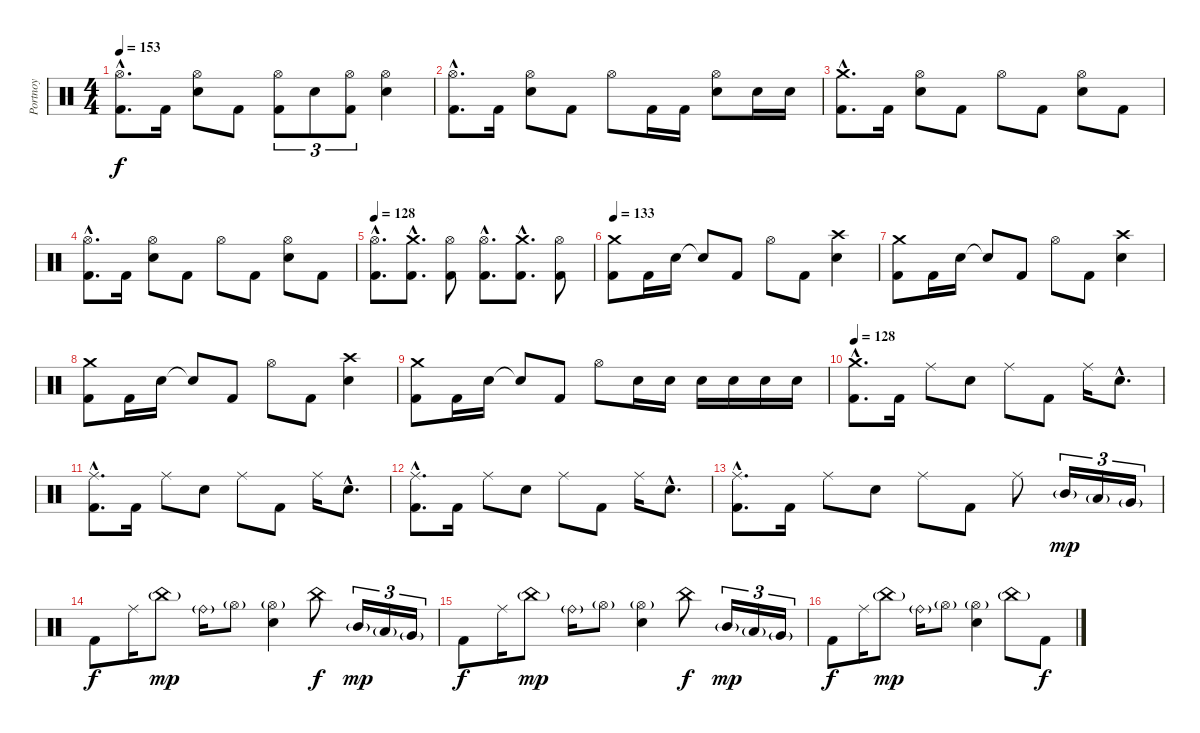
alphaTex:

\track ("Portnoy" "Portnoy") {instrument percussion}
\staff {score}
\articulation defaults
\ts (4 4)
\tempo 153
\clef neutral
\ks c
("Kick (hit) 2"{hac} "Hi-Hat (open)"{hac}).8{d dy f} "Kick (hit) 2".16 ("Electric Snare (hit)" "Hi-Hat (open)").8 "Kick (hit) 2".8 ("Kick (hit) 2" "Hi-Hat (open)").8{tu (3 2)} "Electric Snare (hit)".8{tu (3 2)} ("Kick (hit) 2" "Hi-Hat (open)").8{tu (3 2)} ("Electric Snare (hit)" "Hi-Hat (open)").4 |
("Kick (hit) 2"{hac} "Hi-Hat (open)"{hac}).8{d} "Kick (hit) 2".16 ("Electric Snare (hit)" "Hi-Hat (open)").8 "Kick (hit) 2".8 "Hi-Hat (open)".8 "Kick (hit) 2".16 "Kick (hit) 2".16 ("Electric Snare (hit)" "Hi-Hat (open)").8 "Electric Snare (hit)".16 "Electric Snare (hit)".16 |
("Kick (hit) 2"{hac} "Crash medium (hit)"{hac}).8{d} "Kick (hit) 2".16 ("Electric Snare (hit)" "Hi-Hat (open)").8 "Kick (hit) 2".8 "Hi-Hat (open)".8 "Kick (hit) 2".8 ("Electric Snare (hit)" "Hi-Hat (open)").8 "Kick (hit) 2".8 |
("Kick (hit) 2"{hac} "Hi-Hat (open)"{hac}).8{d} "Kick (hit) 2".16 ("Electric Snare (hit)" "Hi-Hat (open)").8 "Kick (hit) 2".8 "Hi-Hat (open)".8 "Kick (hit) 2".8 ("Electric Snare (hit)" "Hi-Hat (open)").8 "Kick (hit) 2".8 |
\tempo 128
("Kick (hit) 2"{hac} "Hi-Hat (open)"{hac}).8{d} ("Kick (hit) 2"{hac} "Crash medium (hit)"{hac}).8{d} ("Kick (hit) 2" "Hi-Hat (open)").8 ("Kick (hit) 2"{hac} "Hi-Hat (open)"{hac}).8{d} ("Kick (hit) 2"{hac} "Crash medium (hit)"{hac}).8{d} ("Kick (hit) 2" "Hi-Hat (open)").8 |
\tempo 133
("Kick (hit) 2" "Crash medium (hit)").8 "Kick (hit) 2".16 "Electric Snare (hit)".16 "Snare (hit)"{t}.8 "Kick (hit) 2".8 "Hi-Hat (open)".8 "Kick (hit) 2".8 ("Electric Snare (hit)" "Crash high (hit)").4 |
("Kick (hit) 2" "Crash medium (hit)").8 "Kick (hit) 2".16 "Electric Snare (hit)".16 "Snare (hit)"{t}.8 "Kick (hit) 2".8 "Hi-Hat (open)".8 "Kick (hit) 2".8 ("Electric Snare (hit)" "Crash high (hit)").4 |
("Kick (hit) 2" "Crash medium (hit)").8 "Kick (hit) 2".16 "Electric Snare (hit)".16 "Snare (hit)"{t}.8 "Kick (hit) 2".8 "Hi-Hat (open)".8 "Kick (hit) 2".8 ("Electric Snare (hit)" "Crash high (hit)").4 |
("Kick (hit) 2" "Crash medium (hit)").8 "Kick (hit) 2".16 "Electric Snare (hit)".16 "Snare (hit)"{t}.8 "Kick (hit) 2".8 "Hi-Hat (open)".8 "Electric Snare (hit)".16 "Electric Snare (hit)".16 "Electric Snare (hit)".16 "Electric Snare (hit)".16 "Electric Snare (hit)".16 "Electric Snare (hit)".16 |
\tempo 128
("Kick (hit) 2"{hac} "Crash medium (hit)"{hac}).8{d} "Kick (hit) 2".16 "Ride (middle)".8 "Electric Snare (hit)".8 "Ride (middle)".8 "Kick (hit) 2".8 "Ride (middle)".16 "Electric Snare (hit)"{hac}.8{d} |
("Kick (hit) 2"{hac} "Ride (middle)"{hac}).8{d} "Kick (hit) 2".16 "Ride (middle)".8 "Electric Snare (hit)".8 "Ride (middle)".8 "Kick (hit) 2".8 "Ride (middle)".16 "Electric Snare (hit)"{hac}.8{d} |
("Kick (hit) 2"{hac} "Ride (middle)"{hac}).8{d} "Kick (hit) 2".16 "Ride (middle)".8 "Electric Snare (hit)".8 "Ride (middle)".8 "Kick (hit) 2".8 "Ride (middle)".16 "Electric Snare (hit)"{hac}.8{d} |
("Kick (hit) 2"{hac} "Ride (middle)"{hac}).8{d} "Kick (hit) 2".16 "Ride (middle)".8 "Electric Snare (hit)".8 "Ride (middle)".8 "Kick (hit) 2".8 "Ride (middle)".8 "Mid Tom (hit)"{g}.16{tu (3 2) dy mp} "Low Tom (hit)"{g}.16{tu (3 2)} "Very Low Tom (hit)"{g}.16{tu (3 2)} |
"Kick (hit) 2".8{dy f} "Ride (middle)".16 "China (hit)"{g}.8{dy mp} "Ride (bell)"{g}.16 "Hi-Hat (open)"{g}.8 ("Electric Snare (hit)" "Hi-Hat (open)"{g}).4 "China (hit)"{pm}.8{dy f} "Mid Tom (hit)"{g}.16{tu (3 2) dy mp} "Low Tom (hit)"{g}.16{tu (3 2)} "Very Low Tom (hit)"{g}.16{tu (3 2)} |
"Kick (hit) 2".8{dy f} "Ride (middle)".16 "China (hit)"{g}.8{dy mp} "Ride (bell)"{g}.16 "Hi-Hat (open)"{g}.8 ("Electric Snare (hit)" "Hi-Hat (open)"{g}).4 "China (hit)"{pm}.8{dy f} "Mid Tom (hit)"{g}.16{tu (3 2) dy mp} "Low Tom (hit)"{g}.16{tu (3 2)} "Very Low Tom (hit)"{g}.16{tu (3 2)} |
"Kick (hit) 2".8{dy f} "Ride (middle)".16 "China (hit)"{g}.8{dy mp} "Ride (bell)"{g}.16 "Hi-Hat (open)"{g}.8 ("Electric Snare (hit)" "Hi-Hat (open)"{g}).4 "China (hit)"{g pm}.8 "Kick (hit) 2".8{dy f}
